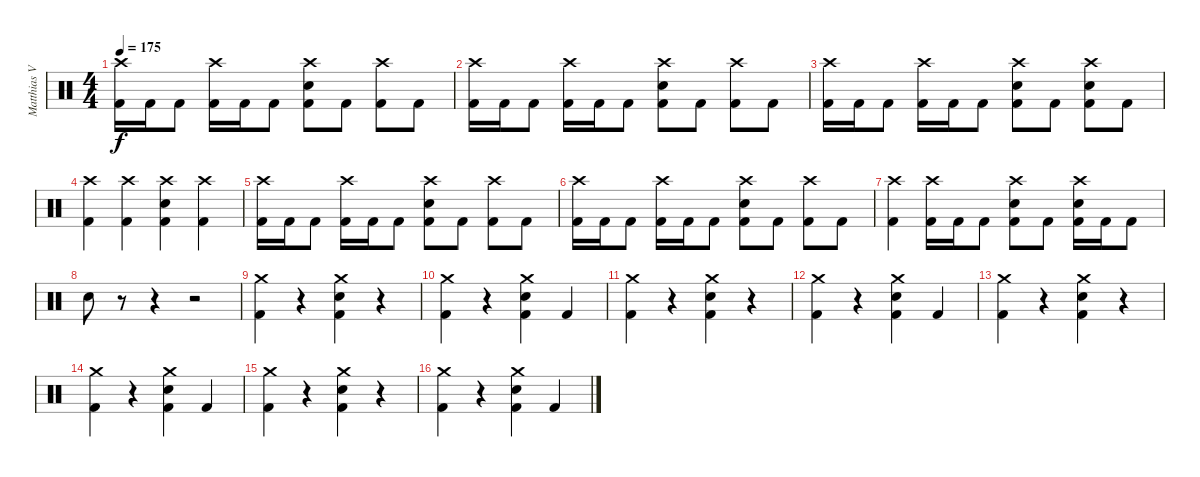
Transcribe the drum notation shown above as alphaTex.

\track ("Matthias Voigt" "Matthias V") {instrument percussion}
\staff {score}
\articulation defaults
\ts (4 4)
\tempo 175
\clef neutral
\ks c
("Crash high (hit)" "Kick (hit) 2").16{dy f} "Kick (hit) 2".16 "Kick (hit) 2".8 ("Crash high (hit)" "Kick (hit) 2").16 "Kick (hit) 2".16 "Kick (hit) 2".8 ("Crash high (hit)" "Electric Snare (hit)" "Kick (hit) 2").8 "Kick (hit) 2".8 ("Crash high (hit)" "Kick (hit) 2").8 "Kick (hit) 2".8 |
("Crash high (hit)" "Kick (hit) 2").16 "Kick (hit) 2".16 "Kick (hit) 2".8 ("Crash high (hit)" "Kick (hit) 2").16 "Kick (hit) 2".16 "Kick (hit) 2".8 ("Crash high (hit)" "Electric Snare (hit)" "Kick (hit) 2").8 "Kick (hit) 2".8 ("Crash high (hit)" "Kick (hit) 2").8 "Kick (hit) 2".8 |
("Crash high (hit)" "Kick (hit) 2").16 "Kick (hit) 2".16 "Kick (hit) 2".8 ("Crash high (hit)" "Kick (hit) 2").16 "Kick (hit) 2".16 "Kick (hit) 2".8 ("Crash high (hit)" "Electric Snare (hit)" "Kick (hit) 2").8 "Kick (hit) 2".8 ("Crash high (hit)" "Electric Snare (hit)" "Kick (hit) 2").8 "Kick (hit) 2".8 |
("Crash high (hit)" "Kick (hit) 2").4 ("Crash high (hit)" "Kick (hit) 2").4 ("Crash high (hit)" "Electric Snare (hit)" "Kick (hit) 2").4 ("Crash high (hit)" "Kick (hit) 2").4 |
("Crash high (hit)" "Kick (hit) 2").16 "Kick (hit) 2".16 "Kick (hit) 2".8 ("Crash high (hit)" "Kick (hit) 2").16 "Kick (hit) 2".16 "Kick (hit) 2".8 ("Crash high (hit)" "Electric Snare (hit)" "Kick (hit) 2").8 "Kick (hit) 2".8 ("Crash high (hit)" "Kick (hit) 2").8 "Kick (hit) 2".8 |
("Crash high (hit)" "Kick (hit) 2").16 "Kick (hit) 2".16 "Kick (hit) 2".8 ("Crash high (hit)" "Kick (hit) 2").16 "Kick (hit) 2".16 "Kick (hit) 2".8 ("Crash high (hit)" "Electric Snare (hit)" "Kick (hit) 2").8 "Kick (hit) 2".8 ("Crash high (hit)" "Kick (hit) 2").8 "Kick (hit) 2".8 |
("Crash high (hit)" "Kick (hit) 2").4 ("Crash high (hit)" "Kick (hit) 2").16 "Kick (hit) 2".16 "Kick (hit) 2".8 ("Crash high (hit)" "Electric Snare (hit)" "Kick (hit) 2").8 "Kick (hit) 2".8 ("Crash high (hit)" "Electric Snare (hit)" "Kick (hit) 2").16 "Kick (hit) 2".16 "Kick (hit) 2".8 |
"Electric Snare (hit)".8 r.8 r.4 r.2 |
("Crash medium (hit)" "Kick (hit) 2").4 r.4 ("Crash medium (hit)" "Electric Snare (hit)" "Kick (hit) 2").4 r.4 |
("Crash medium (hit)" "Kick (hit) 2").4 r.4 ("Crash medium (hit)" "Electric Snare (hit)" "Kick (hit) 2").4 "Kick (hit) 2".4 |
("Crash medium (hit)" "Kick (hit) 2").4 r.4 ("Crash medium (hit)" "Electric Snare (hit)" "Kick (hit) 2").4 r.4 |
("Crash medium (hit)" "Kick (hit) 2").4 r.4 ("Crash medium (hit)" "Electric Snare (hit)" "Kick (hit) 2").4 "Kick (hit) 2".4 |
("Crash medium (hit)" "Kick (hit) 2").4 r.4 ("Crash medium (hit)" "Electric Snare (hit)" "Kick (hit) 2").4 r.4 |
("Crash medium (hit)" "Kick (hit) 2").4 r.4 ("Crash medium (hit)" "Electric Snare (hit)" "Kick (hit) 2").4 "Kick (hit) 2".4 |
("Crash medium (hit)" "Kick (hit) 2").4 r.4 ("Crash medium (hit)" "Electric Snare (hit)" "Kick (hit) 2").4 r.4 |
("Crash medium (hit)" "Kick (hit) 2").4 r.4 ("Crash medium (hit)" "Electric Snare (hit)" "Kick (hit) 2").4 "Kick (hit) 2".4
